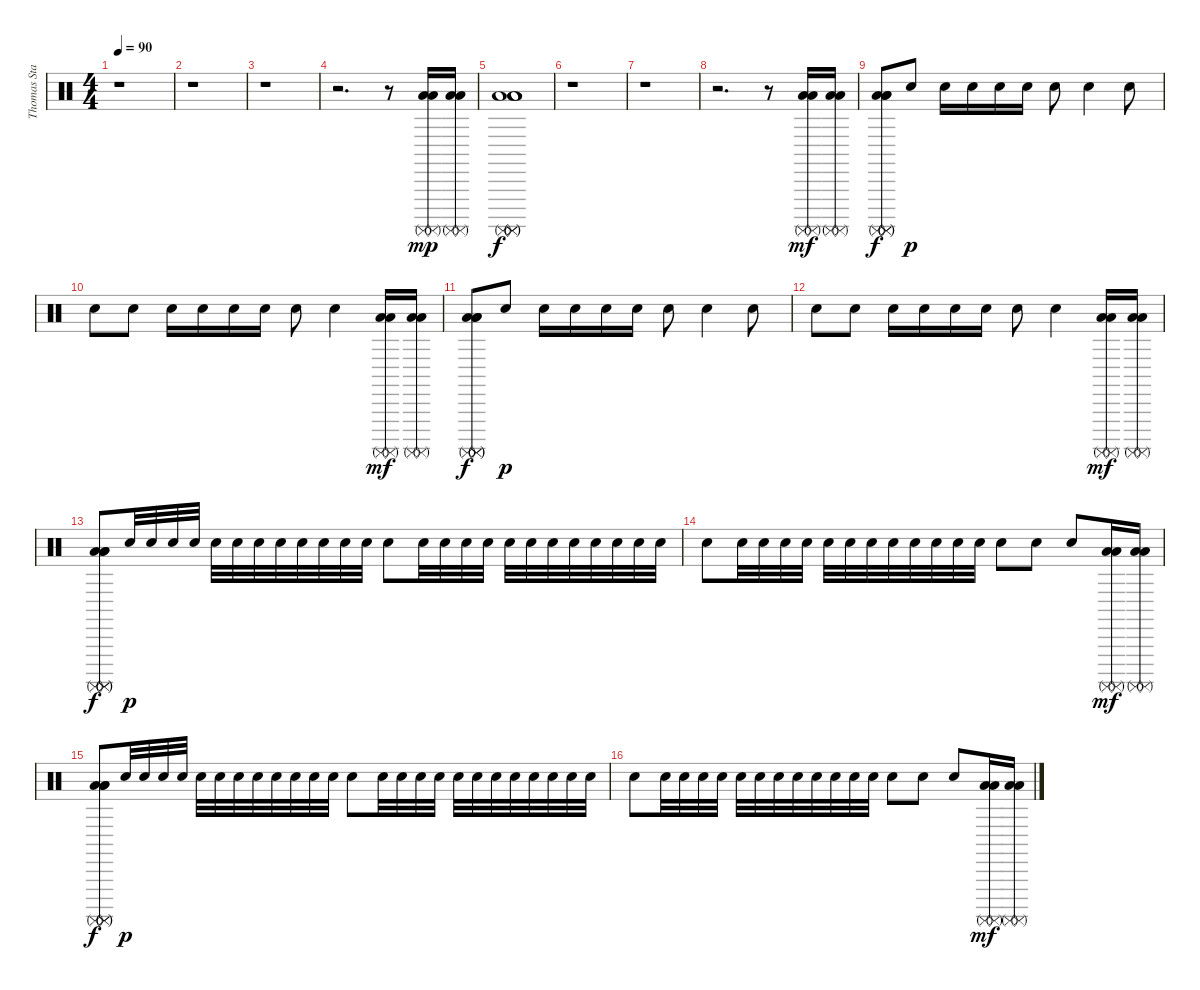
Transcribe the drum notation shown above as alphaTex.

\track ("Thomas Stauch" "Thomas Sta") {instrument percussion}
\staff {score}
\articulation defaults
\ts (4 4)
\tempo 90
\clef neutral
\ks c
r.1{dy mp} |
r.1 |
r.1 |
r.2{d} r.8 ("Low Floor Tom (hit)" "Surdo (mute)" "Low Floor Tom (hit)" "Surdo (mute)").16 ("Low Floor Tom (hit)" "Surdo (mute)" "Low Floor Tom (hit)" "Surdo (mute)").16 |
("Surdo (mute)" "Low Floor Tom (hit)" "Surdo (mute)" "Low Floor Tom (hit)" "Surdo (mute)" "Low Floor Tom (hit)").1{dy f} |
r.1 |
r.1 |
r.2{d} r.8 ("Low Floor Tom (hit)" "Surdo (mute)" "Low Floor Tom (hit)" "Surdo (mute)").16{dy mf} ("Low Floor Tom (hit)" "Surdo (mute)" "Low Floor Tom (hit)" "Surdo (mute)").16 |
("Surdo (mute)" "Low Floor Tom (hit)" "Surdo (mute)" "Low Floor Tom (hit)" "Surdo (mute)" "Low Floor Tom (hit)").8{dy f} "Electric Snare (hit)".8{dy p} "Electric Snare (hit)".16 "Electric Snare (hit)".16 "Electric Snare (hit)".16 "Electric Snare (hit)".16 "Electric Snare (hit)".8 "Electric Snare (hit)".4 "Electric Snare (hit)".8 |
"Electric Snare (hit)".8 "Electric Snare (hit)".8 "Electric Snare (hit)".16 "Electric Snare (hit)".16 "Electric Snare (hit)".16 "Electric Snare (hit)".16 "Electric Snare (hit)".8 "Electric Snare (hit)".4 ("Surdo (mute)" "Low Floor Tom (hit)" "Surdo (mute)" "Low Floor Tom (hit)").16{dy mf} ("Surdo (mute)" "Low Floor Tom (hit)" "Surdo (mute)" "Low Floor Tom (hit)").16 |
("Surdo (mute)" "Low Floor Tom (hit)" "Surdo (mute)" "Low Floor Tom (hit)" "Surdo (mute)" "Low Floor Tom (hit)").8{dy f} "Electric Snare (hit)".8{dy p} "Electric Snare (hit)".16 "Electric Snare (hit)".16 "Electric Snare (hit)".16 "Electric Snare (hit)".16 "Electric Snare (hit)".8 "Electric Snare (hit)".4 "Electric Snare (hit)".8 |
"Electric Snare (hit)".8 "Electric Snare (hit)".8 "Electric Snare (hit)".16 "Electric Snare (hit)".16 "Electric Snare (hit)".16 "Electric Snare (hit)".16 "Electric Snare (hit)".8 "Electric Snare (hit)".4 ("Surdo (mute)" "Low Floor Tom (hit)" "Surdo (mute)" "Low Floor Tom (hit)").16{dy mf} ("Surdo (mute)" "Low Floor Tom (hit)" "Surdo (mute)" "Low Floor Tom (hit)").16 |
("Surdo (mute)" "Low Floor Tom (hit)" "Surdo (mute)" "Low Floor Tom (hit)" "Surdo (mute)" "Low Floor Tom (hit)").8{dy f} "Electric Snare (hit)".32{dy p} "Electric Snare (hit)".32 "Electric Snare (hit)".32 "Electric Snare (hit)".32 "Electric Snare (hit)".32 "Electric Snare (hit)".32 "Electric Snare (hit)".32 "Electric Snare (hit)".32 "Electric Snare (hit)".32 "Electric Snare (hit)".32 "Electric Snare (hit)".32 "Electric Snare (hit)".32 "Electric Snare (hit)".8 "Electric Snare (hit)".32 "Electric Snare (hit)".32 "Electric Snare (hit)".32 "Electric Snare (hit)".32 "Electric Snare (hit)".32 "Electric Snare (hit)".32 "Electric Snare (hit)".32 "Electric Snare (hit)".32 "Electric Snare (hit)".32 "Electric Snare (hit)".32 "Electric Snare (hit)".32 "Electric Snare (hit)".32 |
"Electric Snare (hit)".8 "Electric Snare (hit)".32 "Electric Snare (hit)".32 "Electric Snare (hit)".32 "Electric Snare (hit)".32 "Electric Snare (hit)".32 "Electric Snare (hit)".32 "Electric Snare (hit)".32 "Electric Snare (hit)".32 "Electric Snare (hit)".32 "Electric Snare (hit)".32 "Electric Snare (hit)".32 "Electric Snare (hit)".32 "Electric Snare (hit)".8 "Electric Snare (hit)".8 "Electric Snare (hit)".8 ("Surdo (mute)" "Low Floor Tom (hit)" "Surdo (mute)" "Low Floor Tom (hit)").16{dy mf} ("Surdo (mute)" "Low Floor Tom (hit)" "Surdo (mute)" "Low Floor Tom (hit)").16 |
("Surdo (mute)" "Low Floor Tom (hit)" "Surdo (mute)" "Low Floor Tom (hit)" "Surdo (mute)" "Low Floor Tom (hit)").8{dy f} "Electric Snare (hit)".32{dy p} "Electric Snare (hit)".32 "Electric Snare (hit)".32 "Electric Snare (hit)".32 "Electric Snare (hit)".32 "Electric Snare (hit)".32 "Electric Snare (hit)".32 "Electric Snare (hit)".32 "Electric Snare (hit)".32 "Electric Snare (hit)".32 "Electric Snare (hit)".32 "Electric Snare (hit)".32 "Electric Snare (hit)".8 "Electric Snare (hit)".32 "Electric Snare (hit)".32 "Electric Snare (hit)".32 "Electric Snare (hit)".32 "Electric Snare (hit)".32 "Electric Snare (hit)".32 "Electric Snare (hit)".32 "Electric Snare (hit)".32 "Electric Snare (hit)".32 "Electric Snare (hit)".32 "Electric Snare (hit)".32 "Electric Snare (hit)".32 |
"Electric Snare (hit)".8 "Electric Snare (hit)".32 "Electric Snare (hit)".32 "Electric Snare (hit)".32 "Electric Snare (hit)".32 "Electric Snare (hit)".32 "Electric Snare (hit)".32 "Electric Snare (hit)".32 "Electric Snare (hit)".32 "Electric Snare (hit)".32 "Electric Snare (hit)".32 "Electric Snare (hit)".32 "Electric Snare (hit)".32 "Electric Snare (hit)".8 "Electric Snare (hit)".8 "Electric Snare (hit)".8 ("Surdo (mute)" "Low Floor Tom (hit)" "Surdo (mute)" "Low Floor Tom (hit)").16{dy mf} ("Surdo (mute)" "Low Floor Tom (hit)" "Surdo (mute)" "Low Floor Tom (hit)").16
